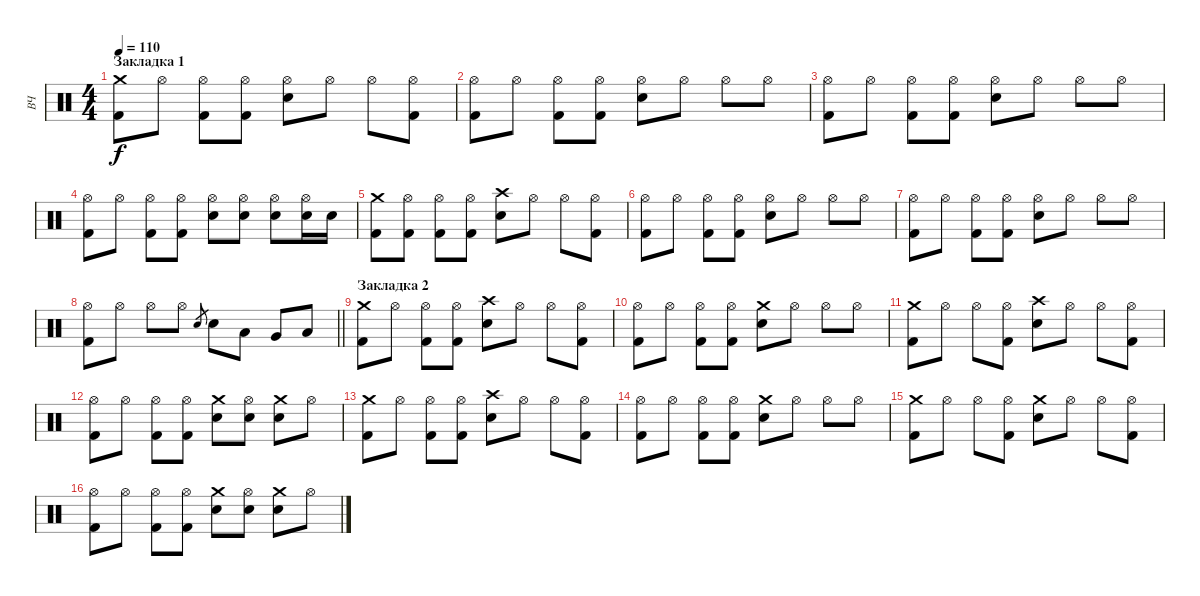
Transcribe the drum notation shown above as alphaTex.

\track ("ВЧ" "ВЧ") {instrument percussion}
\staff {score}
\articulation defaults
\ts (4 4)
\section ("" "Закладка 1")
\tempo 110
\clef neutral
\ks c
("Crash medium (hit)" "Kick (hit) 2").8{dy f} "Hi-Hat (open)".8 ("Hi-Hat (open)" "Kick (hit) 2").8 ("Hi-Hat (open)" "Kick (hit) 2").8 ("Hi-Hat (open)" "Snare (hit) 2").8 "Hi-Hat (open)".8 "Hi-Hat (open)".8 ("Hi-Hat (open)" "Kick (hit) 2").8 |
("Hi-Hat (open)" "Kick (hit) 2").8 "Hi-Hat (open)".8 ("Hi-Hat (open)" "Kick (hit) 2").8 ("Hi-Hat (open)" "Kick (hit) 2").8 ("Hi-Hat (open)" "Snare (hit) 2").8 "Hi-Hat (open)".8 "Hi-Hat (open)".8 "Hi-Hat (open)".8 |
("Hi-Hat (open)" "Kick (hit) 2").8 "Hi-Hat (open)".8 ("Hi-Hat (open)" "Kick (hit) 2").8 ("Hi-Hat (open)" "Kick (hit) 2").8 ("Hi-Hat (open)" "Snare (hit) 2").8 "Hi-Hat (open)".8 "Hi-Hat (open)".8 "Hi-Hat (open)".8 |
("Hi-Hat (open)" "Kick (hit) 2").8 "Hi-Hat (open)".8 ("Hi-Hat (open)" "Kick (hit) 2").8 ("Hi-Hat (open)" "Kick (hit) 2").8 ("Hi-Hat (open)" "Snare (hit) 2").8 ("Hi-Hat (open)" "Snare (hit) 2").8 ("Hi-Hat (open)" "Snare (hit) 2").8 ("Hi-Hat (open)" "Snare (hit) 2").16 "Snare (hit) 2".16 |
("Crash medium (hit)" "Kick (hit) 2").8 ("Hi-Hat (open)" "Kick (hit) 2").8 ("Hi-Hat (open)" "Kick (hit) 2").8 ("Hi-Hat (open)" "Kick (hit) 2").8 ("Crash high (hit)" "Snare (hit) 2").8 "Hi-Hat (open)".8 "Hi-Hat (open)".8 ("Hi-Hat (open)" "Kick (hit) 2").8 |
("Hi-Hat (open)" "Kick (hit) 2").8 "Hi-Hat (open)".8 ("Hi-Hat (open)" "Kick (hit) 2").8 ("Hi-Hat (open)" "Kick (hit) 2").8 ("Hi-Hat (open)" "Snare (hit) 2").8 "Hi-Hat (open)".8 "Hi-Hat (open)".8 "Hi-Hat (open)".8 |
("Hi-Hat (open)" "Kick (hit) 2").8 "Hi-Hat (open)".8 ("Hi-Hat (open)" "Kick (hit) 2").8 ("Hi-Hat (open)" "Kick (hit) 2").8 ("Hi-Hat (open)" "Snare (hit) 2").8 "Hi-Hat (open)".8 "Hi-Hat (open)".8 "Hi-Hat (open)".8 |
\barLineRight lightlight
("Hi-Hat (open)" "Kick (hit) 2").8 "Hi-Hat (open)".8 "Hi-Hat (open)".8 "Hi-Hat (open)".8 "Snare (hit) 2".8{gr} "Snare (hit) 2".8 "Low Floor Tom (hit)".8 "Very Low Tom (hit)".8 "Low Tom (hit)".8 |
\section ("" "Закладка 2")
("Crash medium (hit)" "Kick (hit) 2").8 "Hi-Hat (open)".8 ("Hi-Hat (open)" "Kick (hit) 2").8 ("Hi-Hat (open)" "Kick (hit) 2").8 ("Crash high (hit)" "Snare (hit) 2").8 "Hi-Hat (open)".8 "Hi-Hat (open)".8 ("Hi-Hat (open)" "Kick (hit) 2").8 |
("Hi-Hat (open)" "Kick (hit) 2").8 "Hi-Hat (open)".8 ("Hi-Hat (open)" "Kick (hit) 2").8 ("Hi-Hat (open)" "Kick (hit) 2").8 ("Crash medium (hit)" "Snare (hit) 2").8 "Hi-Hat (open)".8 "Hi-Hat (open)".8 "Hi-Hat (open)".8 |
("Crash medium (hit)" "Kick (hit) 2").8 "Hi-Hat (open)".8 "Hi-Hat (open)".8 ("Hi-Hat (open)" "Kick (hit) 2").8 ("Crash high (hit)" "Snare (hit) 2").8 "Hi-Hat (open)".8 "Hi-Hat (open)".8 ("Hi-Hat (open)" "Kick (hit) 2").8 |
("Hi-Hat (open)" "Kick (hit) 2").8 "Hi-Hat (open)".8 ("Hi-Hat (open)" "Kick (hit) 2").8 ("Hi-Hat (open)" "Kick (hit) 2").8 ("Crash medium (hit)" "Snare (hit) 2").8 ("Hi-Hat (open)" "Snare (hit) 2").8 ("Crash medium (hit)" "Snare (hit) 2").8 "Hi-Hat (open)".8 |
("Crash medium (hit)" "Kick (hit) 2").8{volume 0} "Hi-Hat (open)".8 ("Hi-Hat (open)" "Kick (hit) 2").8 ("Hi-Hat (open)" "Kick (hit) 2").8 ("Crash high (hit)" "Snare (hit) 2").8 "Hi-Hat (open)".8 "Hi-Hat (open)".8 ("Hi-Hat (open)" "Kick (hit) 2").8 |
("Hi-Hat (open)" "Kick (hit) 2").8 "Hi-Hat (open)".8 ("Hi-Hat (open)" "Kick (hit) 2").8 ("Hi-Hat (open)" "Kick (hit) 2").8 ("Crash medium (hit)" "Snare (hit) 2").8 "Hi-Hat (open)".8 "Hi-Hat (open)".8 "Hi-Hat (open)".8 |
("Crash medium (hit)" "Kick (hit) 2").8 "Hi-Hat (open)".8 "Hi-Hat (open)".8 ("Hi-Hat (open)" "Kick (hit) 2").8 ("Crash medium (hit)" "Snare (hit) 2").8 "Hi-Hat (open)".8 "Hi-Hat (open)".8 ("Hi-Hat (open)" "Kick (hit) 2").8 |
("Hi-Hat (open)" "Kick (hit) 2").8 "Hi-Hat (open)".8 ("Hi-Hat (open)" "Kick (hit) 2").8 ("Hi-Hat (open)" "Kick (hit) 2").8 ("Crash medium (hit)" "Snare (hit) 2").8 ("Hi-Hat (open)" "Snare (hit) 2").8 ("Crash medium (hit)" "Snare (hit) 2").8 "Hi-Hat (open)".8
